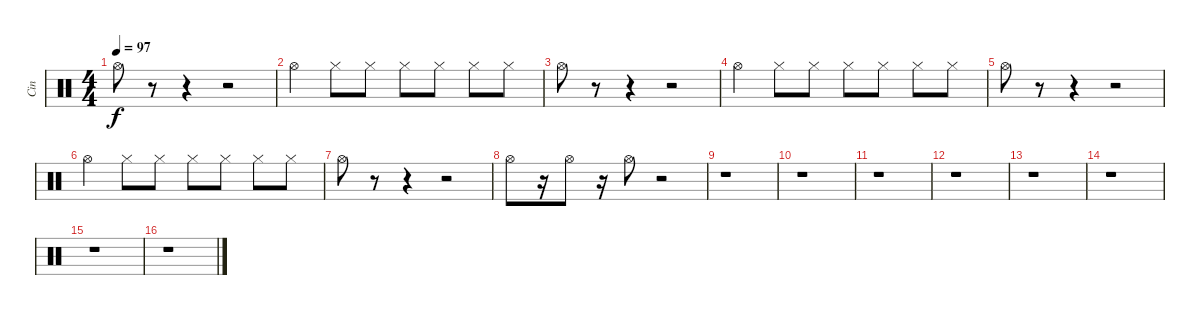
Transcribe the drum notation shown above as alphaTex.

\track ("Cin" "Cin") {instrument percussion}
\staff {score}
\articulation defaults
\ts (4 4)
\tempo 97
\clef neutral
\ks c "Hi-Hat (open)".8{dy f}
r.8 r.4 r.2 |
"Hi-Hat (open)".4 "Hi-Hat (closed)".8 "Hi-Hat (closed)".8 "Hi-Hat (closed)".8 "Hi-Hat (closed)".8 "Hi-Hat (closed)".8 "Hi-Hat (closed)".8 |
"Hi-Hat (open)".8 r.8 r.4 r.2 |
"Hi-Hat (open)".4 "Hi-Hat (closed)".8 "Hi-Hat (closed)".8 "Hi-Hat (closed)".8 "Hi-Hat (closed)".8 "Hi-Hat (closed)".8 "Hi-Hat (closed)".8 |
"Hi-Hat (open)".8 r.8 r.4 r.2 |
"Hi-Hat (open)".4 "Hi-Hat (closed)".8 "Hi-Hat (closed)".8 "Hi-Hat (closed)".8 "Hi-Hat (closed)".8 "Hi-Hat (closed)".8 "Hi-Hat (closed)".8 |
"Hi-Hat (open)".8 r.8 r.4 r.2 |
"Hi-Hat (open)".8 r.16 "Hi-Hat (open)".8 r.16 "Hi-Hat (open)".8 r.2 |
r.1 |
r.1 |
r.1 |
r.1 |
r.1 |
r.1 |
r.1 |
r.1
